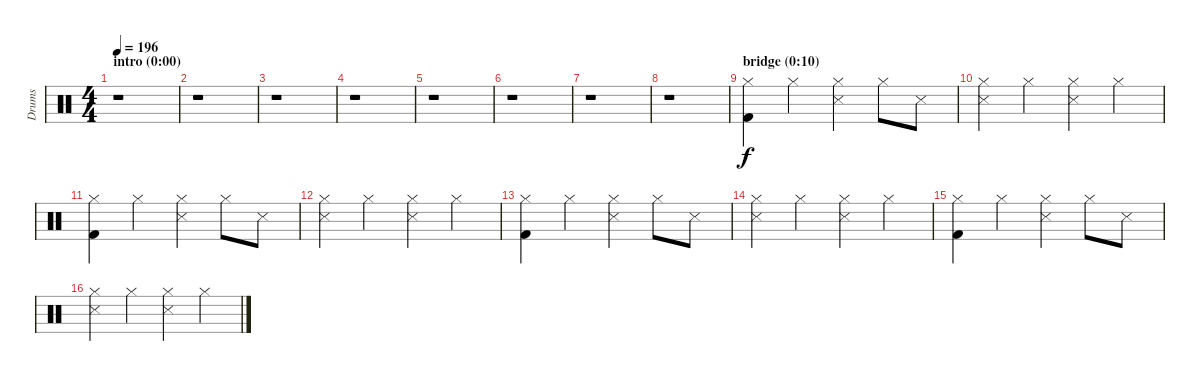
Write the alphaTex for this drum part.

\track ("Drums" "Drums") {instrument percussion}
\staff {score}
\articulation defaults
\ts (4 4)
\section ("" "intro (0:00)")
\tempo 196
\clef neutral
\ks c
r.1{dy f} |
r.1 |
r.1 |
r.1 |
r.1 |
r.1 |
r.1 |
r.1 |
\section ("" "bridge (0:10)")
("Hi-Hat (closed)" "Kick (hit) 2").4 "Hi-Hat (closed)".4 ("Hi-Hat (closed)" "Snare (side stick) 3").4 "Hi-Hat (closed)".8 "Snare (side stick) 3".8 |
("Hi-Hat (closed)" "Snare (side stick) 3").4 "Hi-Hat (closed)".4 ("Hi-Hat (closed)" "Snare (side stick) 3").4 "Hi-Hat (closed)".4 |
("Hi-Hat (closed)" "Kick (hit) 2").4 "Hi-Hat (closed)".4 ("Hi-Hat (closed)" "Snare (side stick) 3").4 "Hi-Hat (closed)".8 "Snare (side stick) 3".8 |
("Hi-Hat (closed)" "Snare (side stick) 3").4 "Hi-Hat (closed)".4 ("Hi-Hat (closed)" "Snare (side stick) 3").4 "Hi-Hat (closed)".4 |
("Hi-Hat (closed)" "Kick (hit) 2").4 "Hi-Hat (closed)".4 ("Hi-Hat (closed)" "Snare (side stick) 3").4 "Hi-Hat (closed)".8 "Snare (side stick) 3".8 |
("Hi-Hat (closed)" "Snare (side stick) 3").4 "Hi-Hat (closed)".4 ("Hi-Hat (closed)" "Snare (side stick) 3").4 "Hi-Hat (closed)".4 |
("Hi-Hat (closed)" "Kick (hit) 2").4 "Hi-Hat (closed)".4 ("Hi-Hat (closed)" "Snare (side stick) 3").4 "Hi-Hat (closed)".8 "Snare (side stick) 3".8 |
("Hi-Hat (closed)" "Snare (side stick) 3").4 "Hi-Hat (closed)".4 ("Hi-Hat (closed)" "Snare (side stick) 3").4 "Hi-Hat (closed)".4
